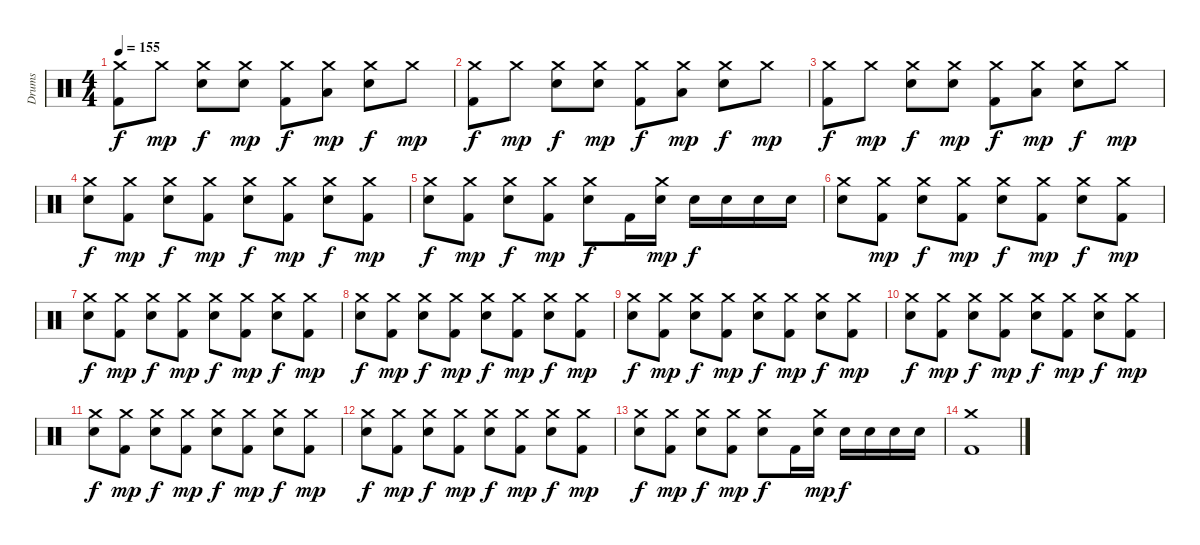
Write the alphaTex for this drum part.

\track ("Drums" "Drums") {instrument percussion}
\staff {score}
\articulation defaults
\ts (4 4)
\tempo 155
\clef neutral
\ks c
("Crash medium (hit)" "Kick (hit) 2").8{dy f} "Crash medium (hit)".8{dy mp} ("Crash medium (hit)" "Snare (hit) 2").8{dy f} ("Crash medium (hit)" "Snare (hit) 2").8{dy mp} ("Crash medium (hit)" "Kick (hit) 2").8{dy f} ("Crash medium (hit)" "Low Tom (hit)").8{dy mp} ("Crash medium (hit)" "Snare (hit) 2").8{dy f} "Crash medium (hit)".8{dy mp} |
("Crash medium (hit)" "Kick (hit) 2").8{dy f} "Crash medium (hit)".8{dy mp} ("Crash medium (hit)" "Snare (hit) 2").8{dy f} ("Crash medium (hit)" "Snare (hit) 2").8{dy mp} ("Crash medium (hit)" "Kick (hit) 2").8{dy f} ("Crash medium (hit)" "Low Tom (hit)").8{dy mp} ("Crash medium (hit)" "Snare (hit) 2").8{dy f} "Crash medium (hit)".8{dy mp} |
("Crash medium (hit)" "Kick (hit) 2").8{dy f} "Crash medium (hit)".8{dy mp} ("Crash medium (hit)" "Snare (hit) 2").8{dy f} ("Crash medium (hit)" "Snare (hit) 2").8{dy mp} ("Crash medium (hit)" "Kick (hit) 2").8{dy f} ("Crash medium (hit)" "Low Tom (hit)").8{dy mp} ("Crash medium (hit)" "Snare (hit) 2").8{dy f} "Crash medium (hit)".8{dy mp} |
("Crash medium (hit)" "Snare (hit) 2").8{dy f} ("Crash medium (hit)" "Kick (hit) 2").8{dy mp} ("Crash medium (hit)" "Snare (hit) 2").8{dy f} ("Crash medium (hit)" "Kick (hit) 2").8{dy mp} ("Crash medium (hit)" "Snare (hit) 2").8{dy f} ("Crash medium (hit)" "Kick (hit) 2").8{dy mp} ("Crash medium (hit)" "Snare (hit) 2").8{dy f} ("Crash medium (hit)" "Kick (hit) 2").8{dy mp} |
("Crash medium (hit)" "Snare (hit) 2").8{dy f} ("Crash medium (hit)" "Kick (hit) 2").8{dy mp} ("Crash medium (hit)" "Snare (hit) 2").8{dy f} ("Crash medium (hit)" "Kick (hit) 2").8{dy mp} ("Crash medium (hit)" "Snare (hit) 2").8{dy f} "Kick (hit) 2".16 ("Crash medium (hit)" "Snare (hit) 2").16{dy mp} "Snare (hit) 2".16{dy f} "Snare (hit) 2".16 "Snare (hit) 2".16 "Snare (hit) 2".16 |
("Crash medium (hit)" "Snare (hit) 2").8 ("Crash medium (hit)" "Kick (hit) 2").8{dy mp} ("Crash medium (hit)" "Snare (hit) 2").8{dy f} ("Crash medium (hit)" "Kick (hit) 2").8{dy mp} ("Crash medium (hit)" "Snare (hit) 2").8{dy f} ("Crash medium (hit)" "Kick (hit) 2").8{dy mp} ("Crash medium (hit)" "Snare (hit) 2").8{dy f} ("Crash medium (hit)" "Kick (hit) 2").8{dy mp} |
("Crash medium (hit)" "Snare (hit) 2").8{dy f} ("Crash medium (hit)" "Kick (hit) 2").8{dy mp} ("Crash medium (hit)" "Snare (hit) 2").8{dy f} ("Crash medium (hit)" "Kick (hit) 2").8{dy mp} ("Crash medium (hit)" "Snare (hit) 2").8{dy f} ("Crash medium (hit)" "Kick (hit) 2").8{dy mp} ("Crash medium (hit)" "Snare (hit) 2").8{dy f} ("Crash medium (hit)" "Kick (hit) 2").8{dy mp} |
("Crash medium (hit)" "Snare (hit) 2").8{dy f} ("Crash medium (hit)" "Kick (hit) 2").8{dy mp} ("Crash medium (hit)" "Snare (hit) 2").8{dy f} ("Crash medium (hit)" "Kick (hit) 2").8{dy mp} ("Crash medium (hit)" "Snare (hit) 2").8{dy f} ("Crash medium (hit)" "Kick (hit) 2").8{dy mp} ("Crash medium (hit)" "Snare (hit) 2").8{dy f} ("Crash medium (hit)" "Kick (hit) 2").8{dy mp} |
("Crash medium (hit)" "Snare (hit) 2").8{dy f} ("Crash medium (hit)" "Kick (hit) 2").8{dy mp} ("Crash medium (hit)" "Snare (hit) 2").8{dy f} ("Crash medium (hit)" "Kick (hit) 2").8{dy mp} ("Crash medium (hit)" "Snare (hit) 2").8{dy f} ("Crash medium (hit)" "Kick (hit) 2").8{dy mp} ("Crash medium (hit)" "Snare (hit) 2").8{dy f} ("Crash medium (hit)" "Kick (hit) 2").8{dy mp} |
("Crash medium (hit)" "Snare (hit) 2").8{dy f} ("Crash medium (hit)" "Kick (hit) 2").8{dy mp} ("Crash medium (hit)" "Snare (hit) 2").8{dy f} ("Crash medium (hit)" "Kick (hit) 2").8{dy mp} ("Crash medium (hit)" "Snare (hit) 2").8{dy f} ("Crash medium (hit)" "Kick (hit) 2").8{dy mp} ("Crash medium (hit)" "Snare (hit) 2").8{dy f} ("Crash medium (hit)" "Kick (hit) 2").8{dy mp} |
("Crash medium (hit)" "Snare (hit) 2").8{dy f} ("Crash medium (hit)" "Kick (hit) 2").8{dy mp} ("Crash medium (hit)" "Snare (hit) 2").8{dy f} ("Crash medium (hit)" "Kick (hit) 2").8{dy mp} ("Crash medium (hit)" "Snare (hit) 2").8{dy f} ("Crash medium (hit)" "Kick (hit) 2").8{dy mp} ("Crash medium (hit)" "Snare (hit) 2").8{dy f} ("Crash medium (hit)" "Kick (hit) 2").8{dy mp} |
("Crash medium (hit)" "Snare (hit) 2").8{dy f} ("Crash medium (hit)" "Kick (hit) 2").8{dy mp} ("Crash medium (hit)" "Snare (hit) 2").8{dy f} ("Crash medium (hit)" "Kick (hit) 2").8{dy mp} ("Crash medium (hit)" "Snare (hit) 2").8{dy f} ("Crash medium (hit)" "Kick (hit) 2").8{dy mp} ("Crash medium (hit)" "Snare (hit) 2").8{dy f} ("Crash medium (hit)" "Kick (hit) 2").8{dy mp} |
("Crash medium (hit)" "Snare (hit) 2").8{dy f} ("Crash medium (hit)" "Kick (hit) 2").8{dy mp} ("Crash medium (hit)" "Snare (hit) 2").8{dy f} ("Crash medium (hit)" "Kick (hit) 2").8{dy mp} ("Crash medium (hit)" "Snare (hit) 2").8{dy f} "Kick (hit) 2".16 ("Crash medium (hit)" "Snare (hit) 2").16{dy mp} "Snare (hit) 2".16{dy f} "Snare (hit) 2".16 "Snare (hit) 2".16 "Snare (hit) 2".16 |
("Crash medium (hit)" "Kick (hit) 2").1
